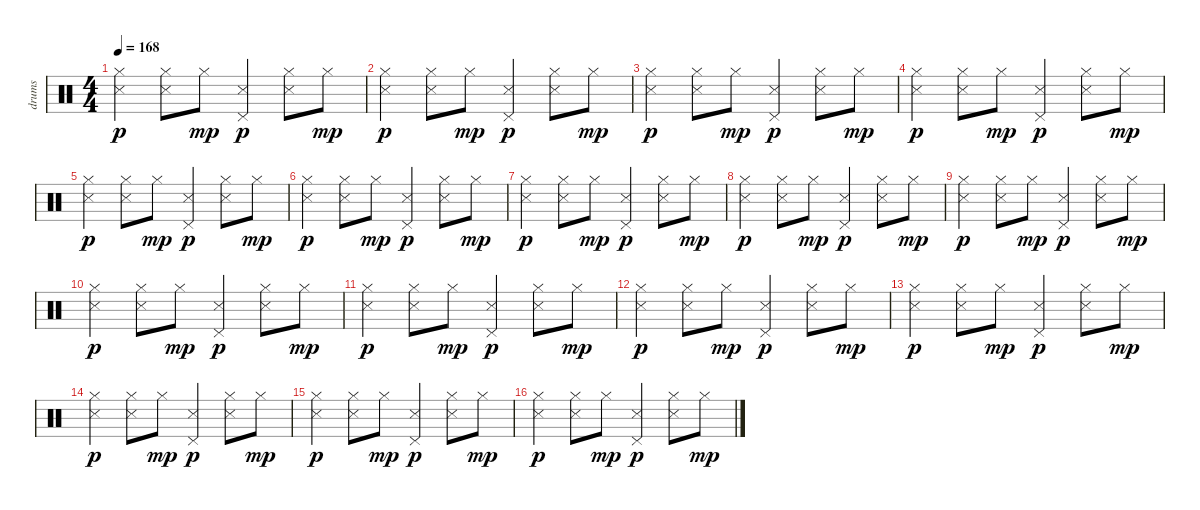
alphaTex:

\track ("drums" "drums") {instrument percussion}
\staff {score}
\articulation defaults
\ts (4 4)
\tempo 168
\clef neutral
\ks c
("Hi-Hat (closed)" "Snare (side stick) 3").4{dy p} ("Hi-Hat (closed)" "Snare (side stick) 3").8 "Hi-Hat (closed)".8{dy mp} ("Pedal Hi-Hat (hit)" "Snare (side stick) 3").4{dy p} ("Hi-Hat (closed)" "Snare (side stick) 3").8 "Hi-Hat (closed)".8{dy mp} |
("Hi-Hat (closed)" "Snare (side stick) 3").4{dy p} ("Hi-Hat (closed)" "Snare (side stick) 3").8 "Hi-Hat (closed)".8{dy mp} ("Pedal Hi-Hat (hit)" "Snare (side stick) 3").4{dy p} ("Hi-Hat (closed)" "Snare (side stick) 3").8 "Hi-Hat (closed)".8{dy mp} |
("Hi-Hat (closed)" "Snare (side stick) 3").4{dy p} ("Hi-Hat (closed)" "Snare (side stick) 3").8 "Hi-Hat (closed)".8{dy mp} ("Pedal Hi-Hat (hit)" "Snare (side stick) 3").4{dy p} ("Hi-Hat (closed)" "Snare (side stick) 3").8 "Hi-Hat (closed)".8{dy mp} |
("Hi-Hat (closed)" "Snare (side stick) 3").4{dy p} ("Hi-Hat (closed)" "Snare (side stick) 3").8 "Hi-Hat (closed)".8{dy mp} ("Pedal Hi-Hat (hit)" "Snare (side stick) 3").4{dy p} ("Hi-Hat (closed)" "Snare (side stick) 3").8 "Hi-Hat (closed)".8{dy mp} |
("Hi-Hat (closed)" "Snare (side stick) 3").4{dy p} ("Hi-Hat (closed)" "Snare (side stick) 3").8 "Hi-Hat (closed)".8{dy mp} ("Pedal Hi-Hat (hit)" "Snare (side stick) 3").4{dy p} ("Hi-Hat (closed)" "Snare (side stick) 3").8 "Hi-Hat (closed)".8{dy mp} |
("Hi-Hat (closed)" "Snare (side stick) 3").4{dy p} ("Hi-Hat (closed)" "Snare (side stick) 3").8 "Hi-Hat (closed)".8{dy mp} ("Pedal Hi-Hat (hit)" "Snare (side stick) 3").4{dy p} ("Hi-Hat (closed)" "Snare (side stick) 3").8 "Hi-Hat (closed)".8{dy mp} |
("Hi-Hat (closed)" "Snare (side stick) 3").4{dy p} ("Hi-Hat (closed)" "Snare (side stick) 3").8 "Hi-Hat (closed)".8{dy mp} ("Pedal Hi-Hat (hit)" "Snare (side stick) 3").4{dy p} ("Hi-Hat (closed)" "Snare (side stick) 3").8 "Hi-Hat (closed)".8{dy mp} |
("Hi-Hat (closed)" "Snare (side stick) 3").4{dy p} ("Hi-Hat (closed)" "Snare (side stick) 3").8 "Hi-Hat (closed)".8{dy mp} ("Pedal Hi-Hat (hit)" "Snare (side stick) 3").4{dy p} ("Hi-Hat (closed)" "Snare (side stick) 3").8 "Hi-Hat (closed)".8{dy mp} |
("Hi-Hat (closed)" "Snare (side stick) 3").4{dy p} ("Hi-Hat (closed)" "Snare (side stick) 3").8 "Hi-Hat (closed)".8{dy mp} ("Pedal Hi-Hat (hit)" "Snare (side stick) 3").4{dy p} ("Hi-Hat (closed)" "Snare (side stick) 3").8 "Hi-Hat (closed)".8{dy mp} |
("Hi-Hat (closed)" "Snare (side stick) 3").4{dy p} ("Hi-Hat (closed)" "Snare (side stick) 3").8 "Hi-Hat (closed)".8{dy mp} ("Pedal Hi-Hat (hit)" "Snare (side stick) 3").4{dy p} ("Hi-Hat (closed)" "Snare (side stick) 3").8 "Hi-Hat (closed)".8{dy mp} |
("Hi-Hat (closed)" "Snare (side stick) 3").4{dy p} ("Hi-Hat (closed)" "Snare (side stick) 3").8 "Hi-Hat (closed)".8{dy mp} ("Pedal Hi-Hat (hit)" "Snare (side stick) 3").4{dy p} ("Hi-Hat (closed)" "Snare (side stick) 3").8 "Hi-Hat (closed)".8{dy mp} |
("Hi-Hat (closed)" "Snare (side stick) 3").4{dy p} ("Hi-Hat (closed)" "Snare (side stick) 3").8 "Hi-Hat (closed)".8{dy mp} ("Pedal Hi-Hat (hit)" "Snare (side stick) 3").4{dy p} ("Hi-Hat (closed)" "Snare (side stick) 3").8 "Hi-Hat (closed)".8{dy mp} |
("Hi-Hat (closed)" "Snare (side stick) 3").4{dy p} ("Hi-Hat (closed)" "Snare (side stick) 3").8 "Hi-Hat (closed)".8{dy mp} ("Pedal Hi-Hat (hit)" "Snare (side stick) 3").4{dy p} ("Hi-Hat (closed)" "Snare (side stick) 3").8 "Hi-Hat (closed)".8{dy mp} |
("Hi-Hat (closed)" "Snare (side stick) 3").4{dy p} ("Hi-Hat (closed)" "Snare (side stick) 3").8 "Hi-Hat (closed)".8{dy mp} ("Pedal Hi-Hat (hit)" "Snare (side stick) 3").4{dy p} ("Hi-Hat (closed)" "Snare (side stick) 3").8 "Hi-Hat (closed)".8{dy mp} |
("Hi-Hat (closed)" "Snare (side stick) 3").4{dy p} ("Hi-Hat (closed)" "Snare (side stick) 3").8 "Hi-Hat (closed)".8{dy mp} ("Pedal Hi-Hat (hit)" "Snare (side stick) 3").4{dy p} ("Hi-Hat (closed)" "Snare (side stick) 3").8 "Hi-Hat (closed)".8{dy mp} |
("Hi-Hat (closed)" "Snare (side stick) 3").4{dy p} ("Hi-Hat (closed)" "Snare (side stick) 3").8 "Hi-Hat (closed)".8{dy mp} ("Pedal Hi-Hat (hit)" "Snare (side stick) 3").4{dy p} ("Hi-Hat (closed)" "Snare (side stick) 3").8 "Hi-Hat (closed)".8{dy mp}
